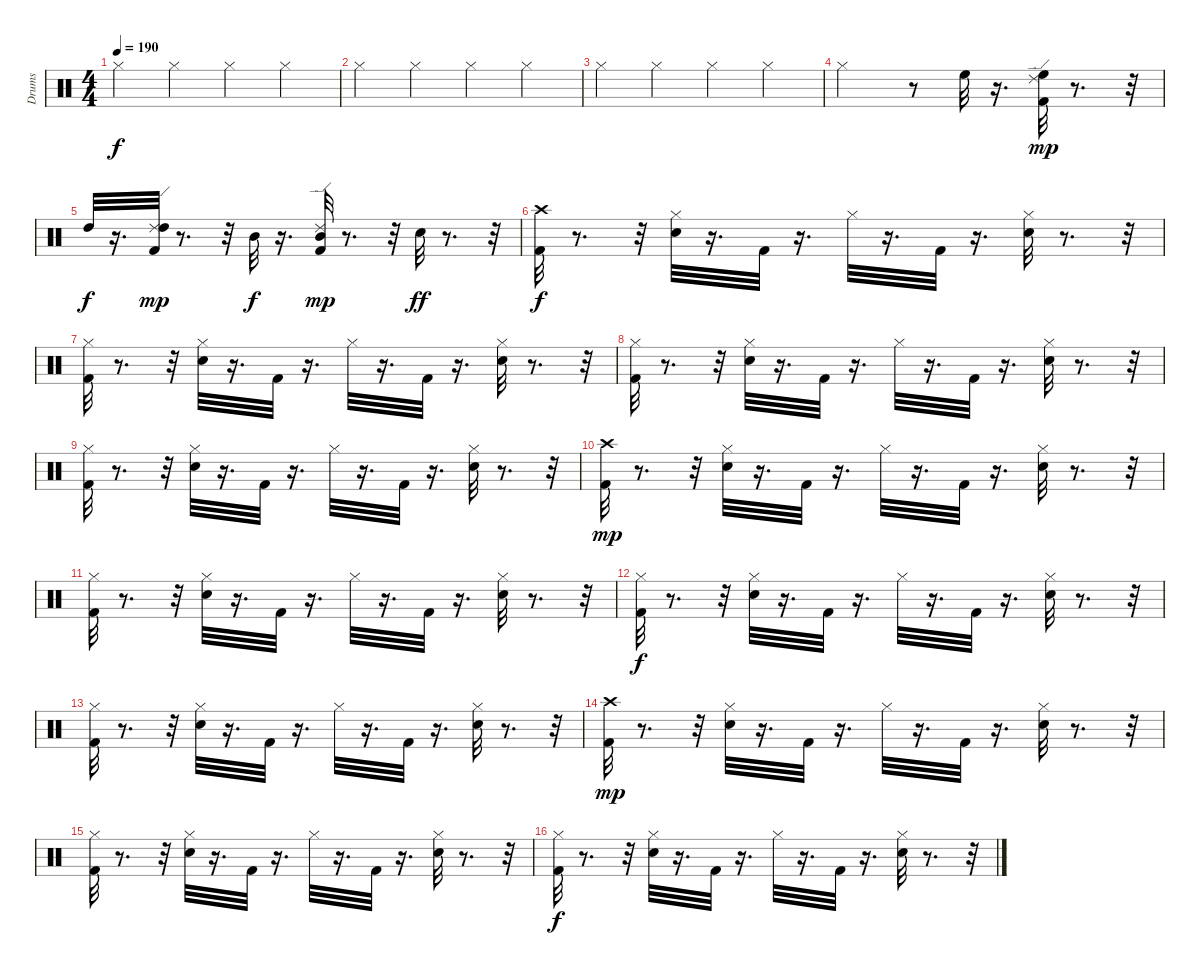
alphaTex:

\track ("Drums" "Drums") {instrument percussion}
\staff {score}
\articulation defaults
\ts (4 4)
\tempo 190
\clef neutral
\ks c "Hi-Hat (closed)".4{dy f} "Hi-Hat (closed)".4 "Hi-Hat (closed)".4 "Hi-Hat (closed)".4
|
"Hi-Hat (closed)".4 "Hi-Hat (closed)".4 "Hi-Hat (closed)".4 "Hi-Hat (closed)".4 |
"Hi-Hat (closed)".4 "Hi-Hat (closed)".4 "Hi-Hat (closed)".4 "Hi-Hat (closed)".4 |
"Hi-Hat (closed)".2 r.8 "High Floor Tom (hit)".32 r.16{d} ("Kick (hit) 2" "Ride (edge) 2" "High Floor Tom (hit)").32{dy mp} r.8{d} r.32 |
"High Tom (hit)".32{dy f} r.16{d} ("Kick (hit) 2" "Ride (edge) 2" "High Tom (hit)").32{dy mp} r.8{d} r.32 "Mid Tom (hit)".32{dy f} r.16{d} ("Kick (hit) 2" "Ride (edge) 2" "Mid Tom (hit)").32{dy mp} r.8{d} r.32 "Snare (hit) 2".32{dy ff} r.8{d} r.32 |
("Crash high (hit)" "Kick (hit) 2").32{dy f} r.8{d} r.32 ("Hi-Hat (closed)" "Snare (hit) 2").32 r.16{d} "Kick (hit) 2".32 r.16{d} "Hi-Hat (closed)".32 r.16{d} "Kick (hit) 2".32 r.16{d} ("Hi-Hat (closed)" "Snare (hit) 2").32 r.8{d} r.32 |
("Hi-Hat (closed)" "Kick (hit) 2").32 r.8{d} r.32 ("Snare (hit) 2" "Hi-Hat (closed)").32 r.16{d} "Kick (hit) 2".32 r.16{d} "Hi-Hat (closed)".32 r.16{d} "Kick (hit) 2".32 r.16{d} ("Snare (hit) 2" "Hi-Hat (closed)").32 r.8{d} r.32 |
("Kick (hit) 2" "Hi-Hat (closed)").32 r.8{d} r.32 ("Snare (hit) 2" "Hi-Hat (closed)").32 r.16{d} "Kick (hit) 2".32 r.16{d} "Hi-Hat (closed)".32 r.16{d} "Kick (hit) 2".32 r.16{d} ("Snare (hit) 2" "Hi-Hat (closed)").32 r.8{d} r.32 |
("Kick (hit) 2" "Hi-Hat (closed)").32 r.8{d} r.32 ("Snare (hit) 2" "Hi-Hat (closed)").32 r.16{d} "Kick (hit) 2".32 r.16{d} "Hi-Hat (closed)".32 r.16{d} "Kick (hit) 2".32 r.16{d} ("Snare (hit) 2" "Hi-Hat (closed)").32 r.8{d} r.32 |
("Crash high (hit)" "Kick (hit) 2").32{dy mp} r.8{d} r.32 ("Hi-Hat (closed)" "Snare (hit) 2").32 r.16{d} "Kick (hit) 2".32 r.16{d} "Hi-Hat (closed)".32 r.16{d} "Kick (hit) 2".32 r.16{d} ("Hi-Hat (closed)" "Snare (hit) 2").32 r.8{d} r.32 |
("Hi-Hat (closed)" "Kick (hit) 2").32 r.8{d} r.32 ("Hi-Hat (closed)" "Snare (hit) 2").32 r.16{d} "Kick (hit) 2".32 r.16{d} "Hi-Hat (closed)".32 r.16{d} "Kick (hit) 2".32 r.16{d} ("Hi-Hat (closed)" "Snare (hit) 2").32 r.8{d} r.32 |
("Kick (hit) 2" "Hi-Hat (closed)").32{dy f} r.8{d} r.32 ("Snare (hit) 2" "Hi-Hat (closed)").32 r.16{d} "Kick (hit) 2".32 r.16{d} "Hi-Hat (closed)".32 r.16{d} "Kick (hit) 2".32 r.16{d} ("Snare (hit) 2" "Hi-Hat (closed)").32 r.8{d} r.32 |
("Kick (hit) 2" "Hi-Hat (closed)").32 r.8{d} r.32 ("Snare (hit) 2" "Hi-Hat (closed)").32 r.16{d} "Kick (hit) 2".32 r.16{d} "Hi-Hat (closed)".32 r.16{d} "Kick (hit) 2".32 r.16{d} ("Snare (hit) 2" "Hi-Hat (closed)").32 r.8{d} r.32 |
("Crash high (hit)" "Kick (hit) 2").32{dy mp} r.8{d} r.32 ("Hi-Hat (closed)" "Snare (hit) 2").32 r.16{d} "Kick (hit) 2".32 r.16{d} "Hi-Hat (closed)".32 r.16{d} "Kick (hit) 2".32 r.16{d} ("Hi-Hat (closed)" "Snare (hit) 2").32 r.8{d} r.32 |
("Hi-Hat (closed)" "Kick (hit) 2").32 r.8{d} r.32 ("Hi-Hat (closed)" "Snare (hit) 2").32 r.16{d} "Kick (hit) 2".32 r.16{d} "Hi-Hat (closed)".32 r.16{d} "Kick (hit) 2".32 r.16{d} ("Hi-Hat (closed)" "Snare (hit) 2").32 r.8{d} r.32 |
("Kick (hit) 2" "Hi-Hat (closed)").32{dy f} r.8{d} r.32 ("Snare (hit) 2" "Hi-Hat (closed)").32 r.16{d} "Kick (hit) 2".32 r.16{d} "Hi-Hat (closed)".32 r.16{d} "Kick (hit) 2".32 r.16{d} ("Snare (hit) 2" "Hi-Hat (closed)").32 r.8{d} r.32
